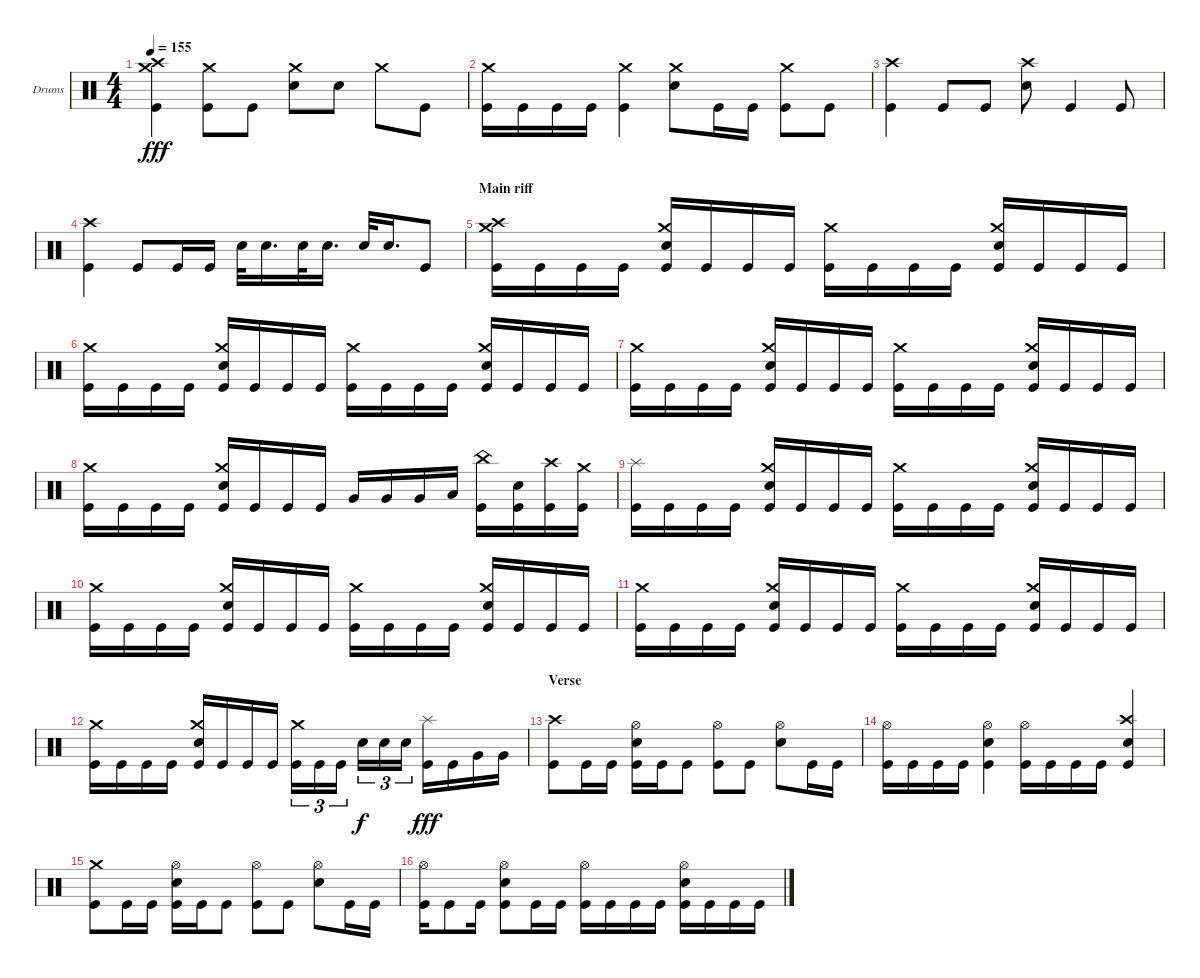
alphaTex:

\defaultSystemsLayout 4
\bracketExtendMode groupsimilarinstruments
\firstSystemTrackNameOrientation horizontal
\otherSystemsTrackNameOrientation horizontal
\track ("Alex Rudinger" "Drums") {instrument percussion}
\staff {score}
\articulation defaults
\ts (4 4)
\tempo 155
\clef neutral
\ks c
("Kick (hit)" "Crash medium (hit)" "Crash high (hit)").4{dy fff} ("Kick (hit)" "Crash medium (hit)").8 "Kick (hit)".8 ("Snare (hit) 2" "Crash medium (hit)").8 "Snare (hit) 2".8 "Crash medium (hit)".8 "Kick (hit)".8 |
("Kick (hit)" "Crash medium (hit)").16 "Kick (hit)".16 "Kick (hit)".16 "Kick (hit)".16 ("Kick (hit)" "Crash medium (hit)").4 ("Snare (hit) 2" "Crash medium (hit)").8 "Kick (hit)".16 "Kick (hit)".16 ("Kick (hit)" "Crash medium (hit)").8 "Kick (hit)".8 |
("Kick (hit)" "Crash high (hit)").4 "Kick (hit)".8 "Kick (hit)".8 ("Snare (hit) 2" "Crash high (hit)").8 "Kick (hit)".4 "Kick (hit)".8 |
("Kick (hit)" "Crash high (hit)").4 "Kick (hit)".8 "Kick (hit)".16 "Kick (hit)".16 "Snare (hit) 2".32 "Snare (hit) 2".16{d} "Snare (hit) 2".32 "Snare (hit) 2".16{d} "Snare (hit) 2".32 "Snare (hit) 2".16{d} "Kick (hit)".8 |
\section ("" "Main riff")
("Kick (hit)" "Crash medium (hit)" "Crash high (hit)").16 "Kick (hit)".16 "Kick (hit)".16 "Kick (hit)".16 ("Kick (hit)" "Snare (hit) 2" "Crash medium (hit)").16 "Kick (hit)".16 "Kick (hit)".16 "Kick (hit)".16 ("Kick (hit)" "Crash medium (hit)").16 "Kick (hit)".16 "Kick (hit)".16 "Kick (hit)".16 ("Kick (hit)" "Snare (hit) 2" "Crash medium (hit)").16 "Kick (hit)".16 "Kick (hit)".16 "Kick (hit)".16 |
("Kick (hit)" "Crash medium (hit)").16 "Kick (hit)".16 "Kick (hit)".16 "Kick (hit)".16 ("Kick (hit)" "Snare (hit) 2" "Crash medium (hit)").16 "Kick (hit)".16 "Kick (hit)".16 "Kick (hit)".16 ("Kick (hit)" "Crash medium (hit)").16 "Kick (hit)".16 "Kick (hit)".16 "Kick (hit)".16 ("Kick (hit)" "Snare (hit) 2" "Crash medium (hit)").16 "Kick (hit)".16 "Kick (hit)".16 "Kick (hit)".16 |
("Kick (hit)" "Crash medium (hit)").16 "Kick (hit)".16 "Kick (hit)".16 "Kick (hit)".16 ("Kick (hit)" "Snare (hit) 2" "Crash medium (hit)").16 "Kick (hit)".16 "Kick (hit)".16 "Kick (hit)".16 ("Kick (hit)" "Crash medium (hit)").16 "Kick (hit)".16 "Kick (hit)".16 "Kick (hit)".16 ("Kick (hit)" "Snare (hit) 2" "Crash medium (hit)").16 "Kick (hit)".16 "Kick (hit)".16 "Kick (hit)".16 |
("Kick (hit)" "Crash medium (hit)").16 "Kick (hit)".16 "Kick (hit)".16 "Kick (hit)".16 ("Kick (hit)" "Snare (hit) 2" "Crash medium (hit)").16 "Kick (hit)".16 "Kick (hit)".16 "Kick (hit)".16 "Very Low Tom (hit)".16 "Very Low Tom (hit)".16 "Very Low Tom (hit)".16 "Low Tom (hit)".16 ("China (hit)" "Kick (hit)").16 ("Snare (hit) 2" "Kick (hit)").16 ("Crash high (hit)" "Kick (hit)").16 ("Crash medium (hit)" "Kick (hit)").16 |
("Kick (hit)" "Splash (hit)").16 "Kick (hit)".16 "Kick (hit)".16 "Kick (hit)".16 ("Kick (hit)" "Snare (hit) 2" "Crash medium (hit)").16 "Kick (hit)".16 "Kick (hit)".16 "Kick (hit)".16 ("Kick (hit)" "Crash medium (hit)").16 "Kick (hit)".16 "Kick (hit)".16 "Kick (hit)".16 ("Kick (hit)" "Snare (hit) 2" "Crash medium (hit)").16 "Kick (hit)".16 "Kick (hit)".16 "Kick (hit)".16 |
("Kick (hit)" "Crash medium (hit)").16 "Kick (hit)".16 "Kick (hit)".16 "Kick (hit)".16 ("Kick (hit)" "Snare (hit) 2" "Crash medium (hit)").16 "Kick (hit)".16 "Kick (hit)".16 "Kick (hit)".16 ("Kick (hit)" "Crash medium (hit)").16 "Kick (hit)".16 "Kick (hit)".16 "Kick (hit)".16 ("Kick (hit)" "Snare (hit) 2" "Crash medium (hit)").16 "Kick (hit)".16 "Kick (hit)".16 "Kick (hit)".16 |
("Kick (hit)" "Crash medium (hit)").16 "Kick (hit)".16 "Kick (hit)".16 "Kick (hit)".16 ("Kick (hit)" "Snare (hit) 2" "Crash medium (hit)").16 "Kick (hit)".16 "Kick (hit)".16 "Kick (hit)".16 ("Kick (hit)" "Crash medium (hit)").16 "Kick (hit)".16 "Kick (hit)".16 "Kick (hit)".16 ("Kick (hit)" "Snare (hit) 2" "Crash medium (hit)").16 "Kick (hit)".16 "Kick (hit)".16 "Kick (hit)".16 |
("Kick (hit)" "Crash medium (hit)").16 "Kick (hit)".16 "Kick (hit)".16 "Kick (hit)".16 ("Kick (hit)" "Snare (hit) 2" "Crash medium (hit)").16 "Kick (hit)".16 "Kick (hit)".16 "Kick (hit)".16 ("Kick (hit)" "Crash medium (hit)").16{tu (3 2)} "Kick (hit)".16{tu (3 2)} "Kick (hit)".16{tu (3 2)} "Snare (hit) 2".16{tu (3 2) dy f} "Snare (hit) 2".16{tu (3 2)} "Snare (hit) 2".16{tu (3 2)} ("Splash (hit)" "Kick (hit)").16{dy fff} "Kick (hit)".16 "Very Low Tom (hit)".16 "Very Low Tom (hit)".16 |
\section ("" "Verse")
("Kick (hit)" "Crash high (hit)").8 "Kick (hit)".16 "Kick (hit)".16 ("Kick (hit)" "Snare (hit) 2" "Hi-Hat (open)").16 "Kick (hit)".16 "Kick (hit)".8 ("Kick (hit)" "Hi-Hat (open)").8 "Kick (hit)".8 ("Snare (hit) 2" "Hi-Hat (open)").8 "Kick (hit)".16 "Kick (hit)".16 |
("Kick (hit)" "Hi-Hat (open)").16 "Kick (hit)".16 "Kick (hit)".16 "Kick (hit)".16 ("Kick (hit)" "Snare (hit) 2" "Hi-Hat (open)").4 ("Kick (hit)" "Hi-Hat (open)").16 "Kick (hit)".16 "Kick (hit)".16 "Kick (hit)".16 ("Kick (hit)" "Snare (hit) 2" "Crash high (hit)").4 |
("Kick (hit)" "Crash medium (hit)").8 "Kick (hit)".16 "Kick (hit)".16 ("Kick (hit)" "Snare (hit) 2" "Hi-Hat (open)").16 "Kick (hit)".16 "Kick (hit)".8 ("Kick (hit)" "Hi-Hat (open)").8 "Kick (hit)".8 ("Snare (hit) 2" "Hi-Hat (open)").8 "Kick (hit)".16 "Kick (hit)".16 |
("Kick (hit)" "Hi-Hat (open)").16 "Kick (hit)".8 "Kick (hit)".16 ("Kick (hit)" "Snare (hit) 2" "Hi-Hat (open)").8 "Kick (hit)".16 "Kick (hit)".16 ("Kick (hit)" "Hi-Hat (open)").16 "Kick (hit)".16 "Kick (hit)".16 "Kick (hit)".16 ("Kick (hit)" "Snare (hit) 2" "Hi-Hat (open)").16 "Kick (hit)".16 "Kick (hit)".16 "Kick (hit)".16
